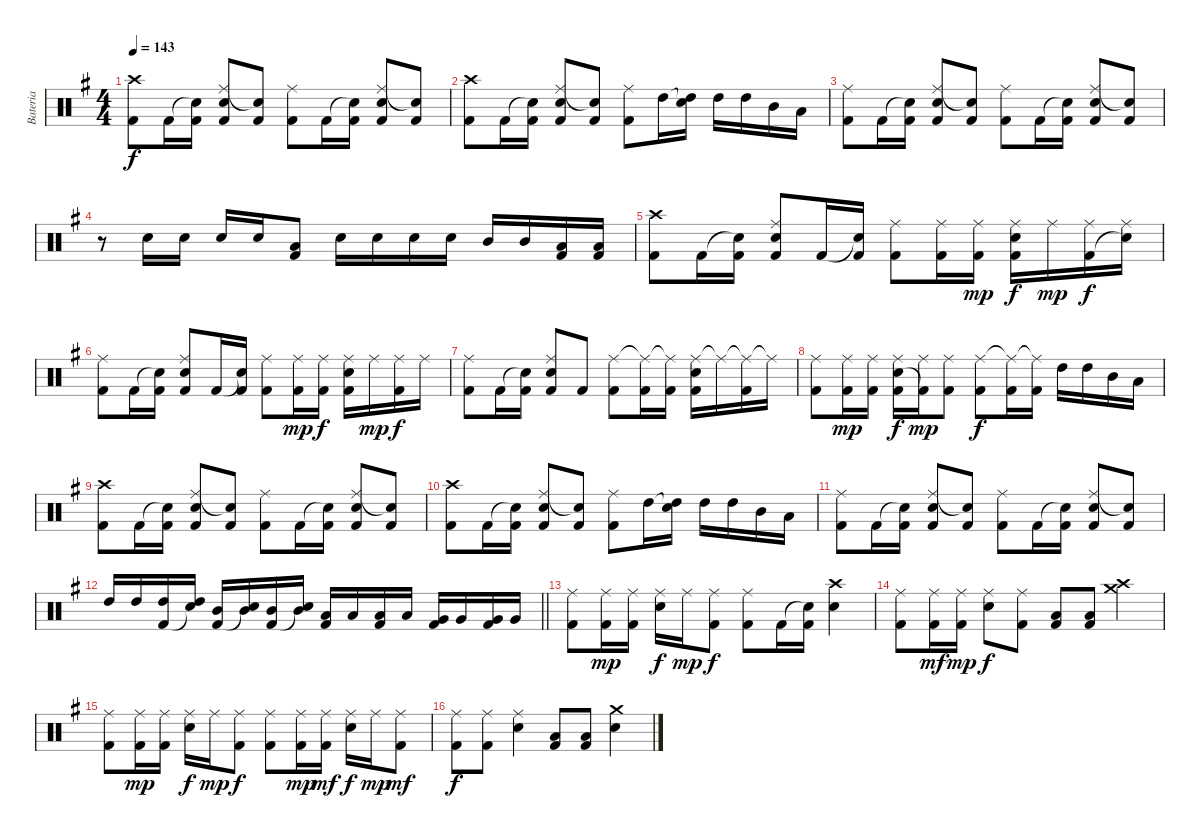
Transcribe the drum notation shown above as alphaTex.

\track ("Bateria" "Bateria") {instrument percussion}
\staff {score}
\articulation defaults
\ts (4 4)
\tempo 143
\clef neutral
\ks g
("Crash high (hit)" "Kick (hit) 2").8{dy f} "Kick (hit) 2".16 ("Snare (hit)"{t} "Kick (hit) 2").16 ("Ride (middle)" "Electric Snare (hit)" "Kick (hit) 2").8 ("Snare (hit)"{t} "Kick (hit) 2").8 ("Ride (middle)" "Kick (hit) 2").8 "Kick (hit) 2".16 ("Snare (hit)"{t} "Kick (hit) 2").16 ("Ride (middle)" "Electric Snare (hit)" "Kick (hit) 2").8 ("Snare (hit)"{t} "Kick (hit) 2").8 |
("Crash high (hit)" "Kick (hit) 2").8 "Kick (hit) 2".16 ("Snare (hit)"{t} "Kick (hit) 2").16 ("Ride (middle)" "Electric Snare (hit)" "Kick (hit) 2").8 ("Snare (hit)"{t} "Kick (hit) 2").8 ("Ride (middle)" "Kick (hit) 2").8 "High Tom (hit)".16 ("Snare (hit)"{t} "High Tom (hit)").16 "High Tom (hit)".16 "High Tom (hit)".16 "Mid Tom (hit)".16 "Low Tom (hit)".16 |
("Ride (middle)" "Kick (hit) 2").8 "Kick (hit) 2".16 ("Snare (hit)"{t} "Kick (hit) 2").16 ("Ride (middle)" "Electric Snare (hit)" "Kick (hit) 2").8 ("Snare (hit)"{t} "Kick (hit) 2").8 ("Ride (middle)" "Kick (hit) 2").8 "Kick (hit) 2".16 ("Snare (hit)"{t} "Kick (hit) 2").16 ("Ride (middle)" "Electric Snare (hit)" "Kick (hit) 2").8 ("Snare (hit)"{t} "Kick (hit) 2").8 |
r.8 "Electric Snare (hit)".16 "Electric Snare (hit)".16 "Electric Snare (hit)".16 "Electric Snare (hit)".16 ("Low Tom (hit)" "Kick (hit) 2").8 "Electric Snare (hit)".16 "Electric Snare (hit)".16 "Electric Snare (hit)".16 "Electric Snare (hit)".16 "Mid Tom (hit)".16 "Mid Tom (hit)".16 ("Low Tom (hit)" "Kick (hit) 2").16 ("Low Tom (hit)" "Kick (hit) 2").16 |
("Crash high (hit)" "Kick (hit) 2").8 "Kick (hit) 2".16 ("Snare (hit)"{t} "Kick (hit) 2").16 ("Ride (middle)" "Electric Snare (hit)" "Kick (hit) 2").8 "Kick (hit) 2".16 ("Snare (hit)"{t} "Kick (hit) 2").16 ("Ride (middle)" "Kick (hit) 2").8 ("Ride (middle)" "Kick (hit) 2").16 ("Ride (middle)" "Kick (hit) 2").16{dy mp} ("Ride (middle)" "Electric Snare (hit)" "Kick (hit) 2").16{dy f} "Ride (middle)".16{dy mp} ("Ride (middle)" "Kick (hit) 2").16{dy f} ("Ride (middle)" "Snare (hit)"{t}).16 |
("Ride (middle)" "Kick (hit) 2").8 "Kick (hit) 2".16 ("Snare (hit)"{t} "Kick (hit) 2").16 ("Ride (middle)" "Electric Snare (hit)" "Kick (hit) 2").8 "Kick (hit) 2".16 ("Snare (hit)"{t} "Kick (hit) 2").16 ("Ride (middle)" "Kick (hit) 2").8 ("Ride (middle)" "Kick (hit) 2").16{dy mp} ("Ride (middle)" "Kick (hit) 2").16{dy f} ("Ride (middle)" "Electric Snare (hit)" "Kick (hit) 2").16 "Ride (middle)".16{dy mp} ("Ride (middle)" "Kick (hit) 2").16{dy f} "Ride (middle)".16 |
("Ride (middle)" "Kick (hit) 2").8 "Kick (hit) 2".16 ("Snare (hit)"{t} "Kick (hit) 2").16 ("Ride (middle)" "Electric Snare (hit)" "Kick (hit) 2").8 "Kick (hit) 2".8 ("Ride (middle)" "Kick (hit) 2").8 ("Ride (middle)"{t} "Kick (hit) 2").16 ("Ride (middle)"{t} "Kick (hit) 2").16 ("Ride (middle)" "Electric Snare (hit)" "Kick (hit) 2").16 "Ride (middle)"{t}.16 ("Ride (middle)"{t} "Kick (hit) 2").16 "Ride (middle)"{t}.16 |
("Ride (middle)" "Kick (hit) 2").8 ("Ride (middle)" "Kick (hit) 2").16{dy mp} ("Ride (middle)" "Kick (hit) 2").16 ("Ride (middle)" "Electric Snare (hit)" "Kick (hit) 2").16{dy f} ("Ride (middle)" "Kick (hit) 2"{t}).16{dy mp} ("Ride (middle)" "Kick (hit) 2").8 ("Ride (middle)" "Kick (hit) 2").8{dy f} ("Ride (middle)"{t} "Kick (hit) 2").16 ("Ride (middle)"{t} "Kick (hit) 2").16 "High Tom (hit)".16 "High Tom (hit)".16 "Mid Tom (hit)".16 "Low Tom (hit)".16 |
("Crash high (hit)" "Kick (hit) 2").8 "Kick (hit) 2".16 ("Snare (hit)"{t} "Kick (hit) 2").16 ("Ride (middle)" "Electric Snare (hit)" "Kick (hit) 2").8 ("Snare (hit)"{t} "Kick (hit) 2").8 ("Ride (middle)" "Kick (hit) 2").8 "Kick (hit) 2".16 ("Snare (hit)"{t} "Kick (hit) 2").16 ("Ride (middle)" "Electric Snare (hit)" "Kick (hit) 2").8 ("Snare (hit)"{t} "Kick (hit) 2").8 |
("Crash high (hit)" "Kick (hit) 2").8 "Kick (hit) 2".16 ("Snare (hit)"{t} "Kick (hit) 2").16 ("Ride (middle)" "Electric Snare (hit)" "Kick (hit) 2").8 ("Snare (hit)"{t} "Kick (hit) 2").8 ("Ride (middle)" "Kick (hit) 2").8 "High Tom (hit)".16 ("Snare (hit)"{t} "High Tom (hit)").16 "High Tom (hit)".16 "High Tom (hit)".16 "Mid Tom (hit)".16 "Low Tom (hit)".16 |
("Ride (middle)" "Kick (hit) 2").8 "Kick (hit) 2".16 ("Snare (hit)"{t} "Kick (hit) 2").16 ("Ride (middle)" "Electric Snare (hit)" "Kick (hit) 2").8 ("Snare (hit)"{t} "Kick (hit) 2").8 ("Ride (middle)" "Kick (hit) 2").8 "Kick (hit) 2".16 ("Snare (hit)"{t} "Kick (hit) 2").16 ("Ride (middle)" "Electric Snare (hit)" "Kick (hit) 2").8 ("Snare (hit)"{t} "Kick (hit) 2").8 |
\barLineRight lightlight "High Tom (hit)".16 "High Tom (hit)".16
("High Tom (hit)" "Kick (hit) 2").16 ("High Tom (hit)" "Snare (hit)"{t}).16 ("Mid Tom (hit)" "Kick (hit) 2").16 ("Mid Tom (hit)" "Snare (hit)"{t}).16 ("Mid Tom (hit)" "Kick (hit) 2").16 ("Mid Tom (hit)" "Snare (hit)"{t}).16 ("Low Tom (hit)" "Kick (hit) 2").16 "Low Tom (hit)".16 ("Low Tom (hit)" "Kick (hit) 2").16 "Low Tom (hit)".16 ("Very Low Tom (hit)" "Kick (hit) 2").16 "Very Low Tom (hit)".16 ("Very Low Tom (hit)" "Kick (hit) 2").16 "Very Low Tom (hit)".16 |
("Ride (middle)" "Kick (hit) 2").8 ("Ride (middle)" "Kick (hit) 2").16{dy mp} ("Ride (middle)" "Kick (hit) 2").16 ("Ride (middle)" "Electric Snare (hit)").16{dy f} "Ride (middle)".16{dy mp} ("Ride (middle)" "Kick (hit) 2").8{dy f} ("Ride (middle)" "Kick (hit) 2").8 "Kick (hit) 2".16 ("Snare (hit)"{t} "Kick (hit) 2").16 ("Crash high (hit)" "Electric Snare (hit)").4 |
("Ride (middle)" "Kick (hit) 2").8 ("Ride (middle)" "Kick (hit) 2").16{dy mf} ("Ride (middle)" "Kick (hit) 2").16{dy mp} ("Ride (middle)" "Electric Snare (hit)").8{dy f} ("Ride (middle)" "Kick (hit) 2").8 ("Low Tom (hit)" "Kick (hit) 2").8 ("Low Tom (hit)" "Kick (hit) 2").8 ("Crash high (hit)" "Crash medium (hit)").4 |
("Ride (middle)" "Kick (hit) 2").8 ("Ride (middle)" "Kick (hit) 2").16{dy mp} ("Ride (middle)" "Kick (hit) 2").16 ("Ride (middle)" "Electric Snare (hit)").16{dy f} "Ride (middle)".16{dy mp} ("Ride (middle)" "Kick (hit) 2").8{dy f} ("Ride (middle)" "Kick (hit) 2").8 ("Ride (middle)" "Kick (hit) 2").16{dy mp} ("Ride (middle)" "Kick (hit) 2").16{dy mf} ("Ride (middle)" "Electric Snare (hit)").16{dy f} "Ride (middle)".16{dy mp} ("Ride (middle)" "Kick (hit) 2").8{dy mf} |
("Ride (middle)" "Kick (hit) 2").8{dy f} ("Ride (middle)" "Kick (hit) 2").8 ("Ride (middle)" "Electric Snare (hit)").4 ("Low Tom (hit)" "Kick (hit) 2").8 ("Low Tom (hit)" "Kick (hit) 2").8 ("Crash medium (hit)" "Electric Snare (hit)").4
